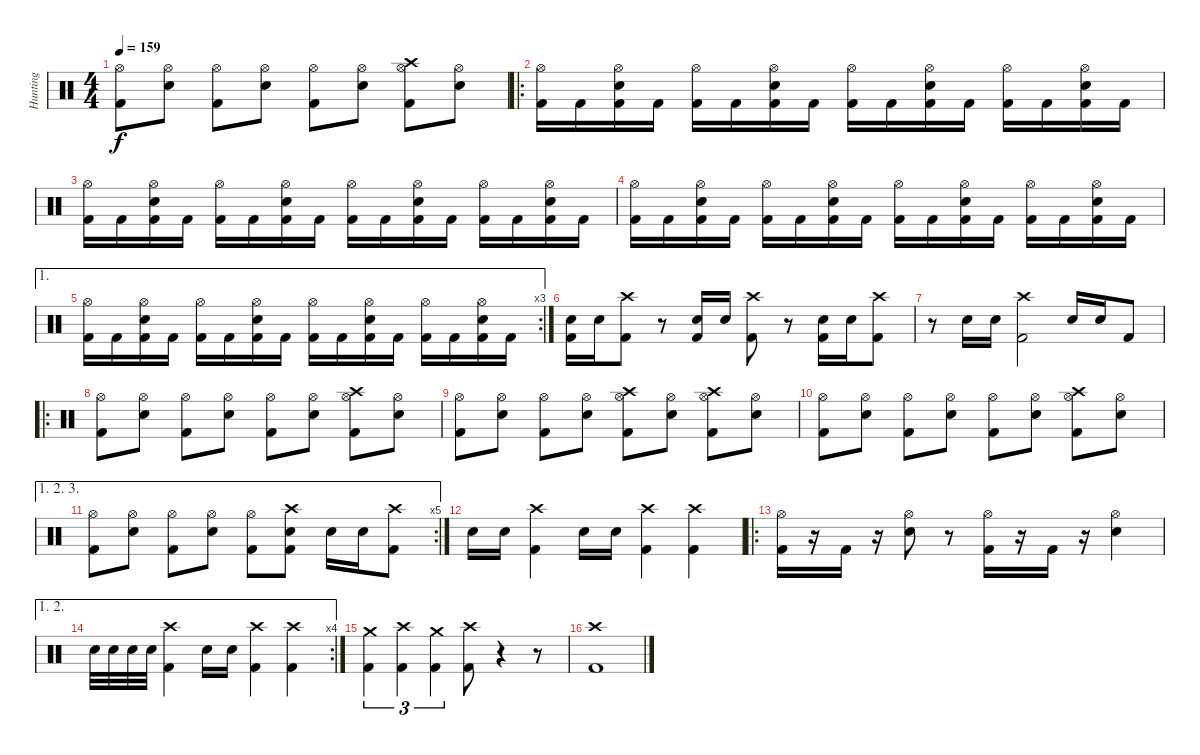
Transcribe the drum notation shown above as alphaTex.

\track ("Hunting" "Hunting") {instrument percussion}
\staff {score}
\articulation defaults
\ts (4 4)
\tempo 159
\clef neutral
\ks c
("Hi-Hat (open)" "Kick (hit) 2").8{dy f} ("Hi-Hat (open)" "Snare (hit) 2").8 ("Hi-Hat (open)" "Kick (hit) 2").8 ("Hi-Hat (open)" "Snare (hit) 2").8 ("Hi-Hat (open)" "Kick (hit) 2").8 ("Hi-Hat (open)" "Snare (hit) 2").8 ("Crash high (hit)" "Hi-Hat (open)" "Kick (hit) 2").8 ("Hi-Hat (open)" "Snare (hit) 2").8 |
\ro
("Hi-Hat (open)" "Kick (hit) 2").16 "Kick (hit) 2".16 ("Hi-Hat (open)" "Snare (hit) 2" "Kick (hit) 2").16 "Kick (hit) 2".16 ("Hi-Hat (open)" "Kick (hit) 2").16 "Kick (hit) 2".16 ("Hi-Hat (open)" "Snare (hit) 2" "Kick (hit) 2").16 "Kick (hit) 2".16 ("Hi-Hat (open)" "Kick (hit) 2").16 "Kick (hit) 2".16 ("Hi-Hat (open)" "Snare (hit) 2" "Kick (hit) 2").16 "Kick (hit) 2".16 ("Hi-Hat (open)" "Kick (hit) 2").16 "Kick (hit) 2".16 ("Hi-Hat (open)" "Snare (hit) 2" "Kick (hit) 2").16 "Kick (hit) 2".16 |
("Hi-Hat (open)" "Kick (hit) 2").16 "Kick (hit) 2".16 ("Hi-Hat (open)" "Snare (hit) 2" "Kick (hit) 2").16 "Kick (hit) 2".16 ("Hi-Hat (open)" "Kick (hit) 2").16 "Kick (hit) 2".16 ("Hi-Hat (open)" "Snare (hit) 2" "Kick (hit) 2").16 "Kick (hit) 2".16 ("Hi-Hat (open)" "Kick (hit) 2").16 "Kick (hit) 2".16 ("Hi-Hat (open)" "Snare (hit) 2" "Kick (hit) 2").16 "Kick (hit) 2".16 ("Hi-Hat (open)" "Kick (hit) 2").16 "Kick (hit) 2".16 ("Hi-Hat (open)" "Snare (hit) 2" "Kick (hit) 2").16 "Kick (hit) 2".16 |
("Hi-Hat (open)" "Kick (hit) 2").16 "Kick (hit) 2".16 ("Hi-Hat (open)" "Snare (hit) 2" "Kick (hit) 2").16 "Kick (hit) 2".16 ("Hi-Hat (open)" "Kick (hit) 2").16 "Kick (hit) 2".16 ("Hi-Hat (open)" "Snare (hit) 2" "Kick (hit) 2").16 "Kick (hit) 2".16 ("Hi-Hat (open)" "Kick (hit) 2").16 "Kick (hit) 2".16 ("Hi-Hat (open)" "Snare (hit) 2" "Kick (hit) 2").16 "Kick (hit) 2".16 ("Hi-Hat (open)" "Kick (hit) 2").16 "Kick (hit) 2".16 ("Hi-Hat (open)" "Snare (hit) 2" "Kick (hit) 2").16 "Kick (hit) 2".16 |
\ae 1
\rc 3
("Hi-Hat (open)" "Kick (hit) 2").16 "Kick (hit) 2".16 ("Hi-Hat (open)" "Snare (hit) 2" "Kick (hit) 2").16 "Kick (hit) 2".16 ("Hi-Hat (open)" "Kick (hit) 2").16 "Kick (hit) 2".16 ("Hi-Hat (open)" "Snare (hit) 2" "Kick (hit) 2").16 "Kick (hit) 2".16 ("Hi-Hat (open)" "Kick (hit) 2").16 "Kick (hit) 2".16 ("Hi-Hat (open)" "Snare (hit) 2" "Kick (hit) 2").16 "Kick (hit) 2".16 ("Hi-Hat (open)" "Kick (hit) 2").16 "Kick (hit) 2".16 ("Hi-Hat (open)" "Snare (hit) 2" "Kick (hit) 2").16 "Kick (hit) 2".16 |
("Snare (hit) 2" "Kick (hit) 2").16 "Snare (hit) 2".16 ("Crash high (hit)" "Kick (hit) 2").8 r.8 ("Snare (hit) 2" "Kick (hit) 2").16 "Snare (hit) 2".16 ("Crash high (hit)" "Kick (hit) 2").8 r.8 ("Snare (hit) 2" "Kick (hit) 2").16 "Snare (hit) 2".16 ("Crash high (hit)" "Kick (hit) 2").8 |
r.8 "Snare (hit) 2".16 "Snare (hit) 2".16 ("Crash high (hit)" "Kick (hit) 2").2 "Snare (hit) 2".16 "Snare (hit) 2".16 "Kick (hit) 2".8 |
\ro
("Hi-Hat (open)" "Kick (hit) 2").8 ("Hi-Hat (open)" "Snare (hit) 2").8 ("Hi-Hat (open)" "Kick (hit) 2").8 ("Hi-Hat (open)" "Snare (hit) 2").8 ("Hi-Hat (open)" "Kick (hit) 2").8 ("Hi-Hat (open)" "Snare (hit) 2").8 ("Crash high (hit)" "Hi-Hat (open)" "Kick (hit) 2").8 ("Hi-Hat (open)" "Snare (hit) 2").8 |
("Hi-Hat (open)" "Kick (hit) 2").8 ("Hi-Hat (open)" "Snare (hit) 2").8 ("Hi-Hat (open)" "Kick (hit) 2").8 ("Hi-Hat (open)" "Snare (hit) 2").8 ("Crash high (hit)" "Hi-Hat (open)" "Kick (hit) 2").8 ("Hi-Hat (open)" "Snare (hit) 2").8 ("Crash high (hit)" "Hi-Hat (open)" "Kick (hit) 2").8 ("Hi-Hat (open)" "Snare (hit) 2").8 |
("Hi-Hat (open)" "Kick (hit) 2").8 ("Hi-Hat (open)" "Snare (hit) 2").8 ("Hi-Hat (open)" "Kick (hit) 2").8 ("Hi-Hat (open)" "Snare (hit) 2").8 ("Hi-Hat (open)" "Kick (hit) 2").8 ("Hi-Hat (open)" "Snare (hit) 2").8 ("Crash high (hit)" "Hi-Hat (open)" "Kick (hit) 2").8 ("Hi-Hat (open)" "Snare (hit) 2").8 |
\ae (1 2 3)
\rc 5
("Hi-Hat (open)" "Kick (hit) 2").8 ("Hi-Hat (open)" "Snare (hit) 2").8 ("Hi-Hat (open)" "Kick (hit) 2").8 ("Hi-Hat (open)" "Snare (hit) 2").8 ("Hi-Hat (open)" "Kick (hit) 2").8 ("Crash high (hit)" "Snare (hit) 2" "Kick (hit) 2").8 "Snare (hit) 2".16 "Snare (hit) 2".16 ("Crash high (hit)" "Kick (hit) 2").8 |
"Snare (hit) 2".16 "Snare (hit) 2".16 ("Crash high (hit)" "Kick (hit) 2").4 "Snare (hit) 2".16 "Snare (hit) 2".16 ("Crash high (hit)" "Kick (hit) 2").4 ("Crash high (hit)" "Kick (hit) 2").4 |
\ro
("Hi-Hat (open)" "Kick (hit) 2").16 r.16 "Kick (hit) 2".16 r.16 ("Hi-Hat (open)" "Snare (hit) 2").8 r.8 ("Hi-Hat (open)" "Kick (hit) 2").16 r.16 "Kick (hit) 2".16 r.16 ("Hi-Hat (open)" "Snare (hit) 2").4 |
\ae (1 2)
\rc 4 "Snare (hit) 2".32 "Snare (hit) 2".32 "Snare (hit) 2".32 "Snare (hit) 2".32
("Crash high (hit)" "Kick (hit) 2").4 "Snare (hit) 2".16 "Snare (hit) 2".16 ("Crash high (hit)" "Kick (hit) 2").4 ("Crash high (hit)" "Kick (hit) 2").4 |
("Crash medium (hit)" "Kick (hit) 2").4{tu (3 2)} ("Crash high (hit)" "Kick (hit) 2").4{tu (3 2)} ("Crash medium (hit)" "Kick (hit) 2").4{tu (3 2)} ("Crash high (hit)" "Kick (hit) 2").8 r.4 r.8 |
("Crash high (hit)" "Kick (hit) 2").1
